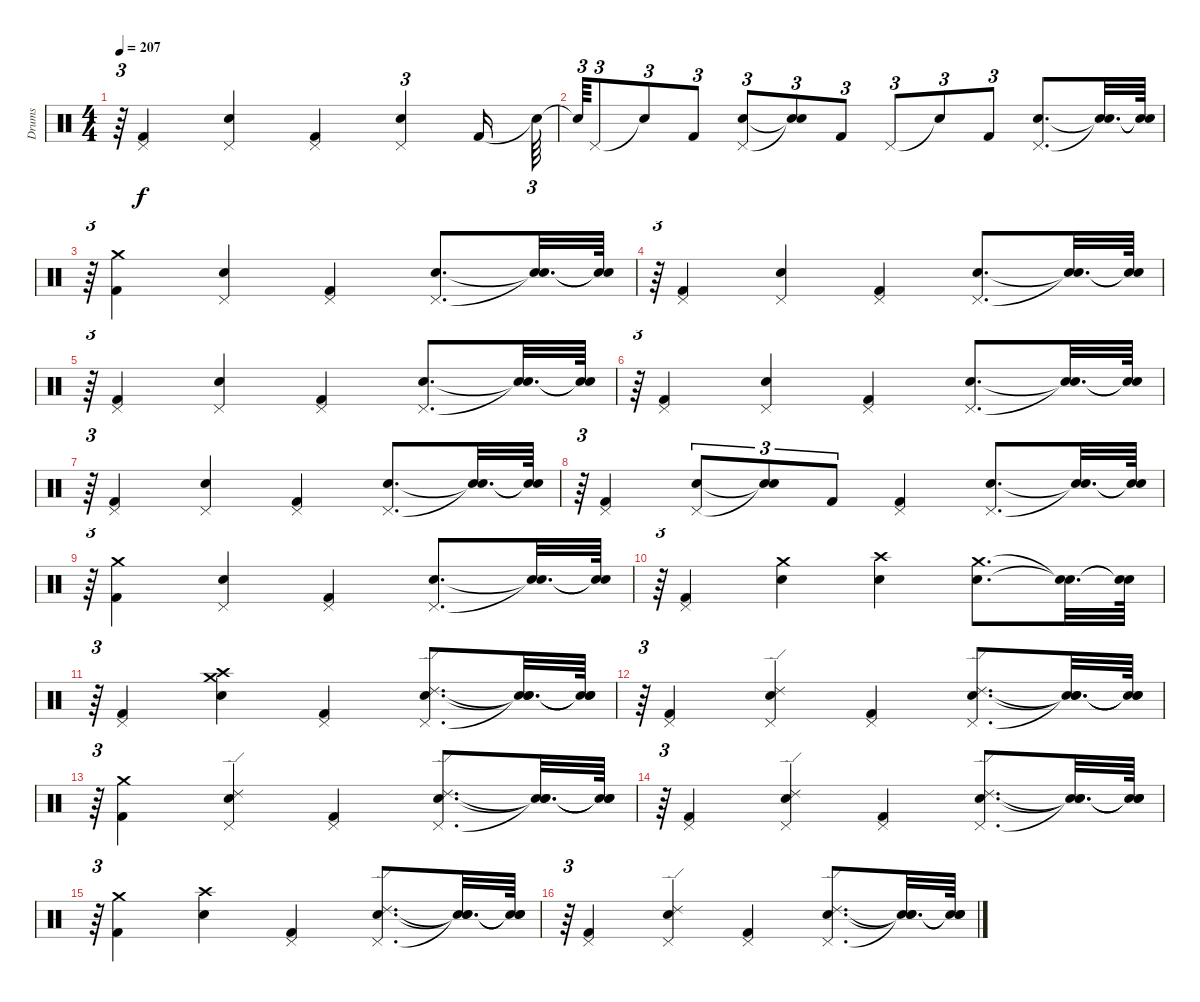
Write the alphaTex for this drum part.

\track ("Drums" "Drums") {instrument percussion}
\staff {score}
\articulation defaults
\ts (4 4)
\tempo 207
\clef neutral
\ks c
r.64{tu (3 2) dy f} ("Pedal Hi-Hat (hit)" "Kick (hit) 2").4 ("Pedal Hi-Hat (hit)" "Snare (hit) 2").4 ("Pedal Hi-Hat (hit)" "Kick (hit) 2").4 ("Pedal Hi-Hat (hit)" "Snare (hit) 2").4{tu (3 2)} "Kick (hit) 2".16 "Snare (hit)"{t}.64{tu (3 2)} |
"Snare (hit)"{t}.64{tu (3 2)} "Pedal Hi-Hat (hit)".8{tu (3 2)} "Snare (hit)"{t}.8{tu (3 2)} "Kick (hit) 2".8{tu (3 2)} ("Pedal Hi-Hat (hit)" "Snare (hit) 2").8{tu (3 2)} ("Snare (hit)"{t} "Snare (hit)"{t}).8{tu (3 2)} "Kick (hit) 2".8{tu (3 2)} "Pedal Hi-Hat (hit)".8{tu (3 2)} "Snare (hit)"{t}.8{tu (3 2)} "Kick (hit) 2".8{tu (3 2)} ("Pedal Hi-Hat (hit)" "Snare (hit) 2").8{d} ("Snare (hit)"{t} "Snare (hit)"{t}).32{d} ("Snare (hit)"{t} "Snare (hit)"{t}).64 |
r.64{tu (3 2)} ("Kick (hit) 2" "Crash medium (hit)").4 ("Pedal Hi-Hat (hit)" "Snare (hit) 2").4 ("Pedal Hi-Hat (hit)" "Kick (hit) 2").4 ("Pedal Hi-Hat (hit)" "Snare (hit) 2").8{d} ("Snare (hit)"{t} "Snare (hit)"{t}).32{d} ("Snare (hit)"{t} "Snare (hit)"{t}).64 |
r.64{tu (3 2)} ("Pedal Hi-Hat (hit)" "Kick (hit) 2").4 ("Pedal Hi-Hat (hit)" "Snare (hit) 2").4 ("Pedal Hi-Hat (hit)" "Kick (hit) 2").4 ("Pedal Hi-Hat (hit)" "Snare (hit) 2").8{d} ("Snare (hit)"{t} "Snare (hit)"{t}).32{d} ("Snare (hit)"{t} "Snare (hit)"{t}).64 |
r.64{tu (3 2)} ("Pedal Hi-Hat (hit)" "Kick (hit) 2").4 ("Pedal Hi-Hat (hit)" "Snare (hit) 2").4 ("Pedal Hi-Hat (hit)" "Kick (hit) 2").4 ("Pedal Hi-Hat (hit)" "Snare (hit) 2").8{d} ("Snare (hit)"{t} "Snare (hit)"{t}).32{d} ("Snare (hit)"{t} "Snare (hit)"{t}).64 |
r.64{tu (3 2)} ("Pedal Hi-Hat (hit)" "Kick (hit) 2").4 ("Pedal Hi-Hat (hit)" "Snare (hit) 2").4 ("Pedal Hi-Hat (hit)" "Kick (hit) 2").4 ("Pedal Hi-Hat (hit)" "Snare (hit) 2").8{d} ("Snare (hit)"{t} "Snare (hit)"{t}).32{d} ("Snare (hit)"{t} "Snare (hit)"{t}).64 |
r.64{tu (3 2)} ("Pedal Hi-Hat (hit)" "Kick (hit) 2").4 ("Pedal Hi-Hat (hit)" "Snare (hit) 2").4 ("Pedal Hi-Hat (hit)" "Kick (hit) 2").4 ("Pedal Hi-Hat (hit)" "Snare (hit) 2").8{d} ("Snare (hit)"{t} "Snare (hit)"{t}).32{d} ("Snare (hit)"{t} "Snare (hit)"{t}).64 |
r.64{tu (3 2)} ("Pedal Hi-Hat (hit)" "Kick (hit) 2").4 ("Pedal Hi-Hat (hit)" "Snare (hit) 2").8{tu (3 2)} ("Snare (hit)"{t} "Snare (hit)"{t}).8{tu (3 2)} "Kick (hit) 2".8{tu (3 2)} ("Pedal Hi-Hat (hit)" "Kick (hit) 2").4 ("Pedal Hi-Hat (hit)" "Snare (hit) 2").8{d} ("Snare (hit)"{t} "Snare (hit)"{t}).32{d} ("Snare (hit)"{t} "Snare (hit)"{t}).64 |
r.64{tu (3 2)} ("Kick (hit) 2" "Crash medium (hit)").4 ("Snare (hit) 2" "Pedal Hi-Hat (hit)").4 ("Pedal Hi-Hat (hit)" "Kick (hit) 2").4 ("Pedal Hi-Hat (hit)" "Snare (hit) 2").8{d} ("Snare (hit)"{t} "Snare (hit)"{t}).32{d} ("Snare (hit)"{t} "Snare (hit)"{t}).64 |
r.64{tu (3 2)} ("Pedal Hi-Hat (hit)" "Kick (hit) 2").4 ("Snare (hit) 2" "Crash medium (hit)").4 ("Snare (hit) 2" "Crash high (hit)").4 ("Snare (hit) 2" "Crash medium (hit)").8{d} ("Snare (hit)"{t} "Snare (hit)"{t}).32{d} ("Snare (hit)"{t} "Snare (hit)"{t}).64 |
r.64{tu (3 2)} ("Pedal Hi-Hat (hit)" "Kick (hit) 2").4 ("Snare (hit) 2" "Crash high (hit)" "Crash medium (hit)").4 ("Pedal Hi-Hat (hit)" "Kick (hit) 2").4 ("Ride (edge) 2" "Pedal Hi-Hat (hit)" "Snare (hit) 2").8{d} ("Snare (hit)"{t} "Snare (hit)"{t} "Snare (hit)"{t}).32{d} ("Snare (hit)"{t} "Snare (hit)"{t} "Snare (hit)"{t}).64 |
r.64{tu (3 2)} ("Pedal Hi-Hat (hit)" "Kick (hit) 2").4 ("Ride (edge) 2" "Pedal Hi-Hat (hit)" "Snare (hit) 2").4 ("Pedal Hi-Hat (hit)" "Kick (hit) 2").4 ("Ride (edge) 2" "Pedal Hi-Hat (hit)" "Snare (hit) 2").8{d} ("Snare (hit)"{t} "Snare (hit)"{t} "Snare (hit)"{t}).32{d} ("Snare (hit)"{t} "Snare (hit)"{t} "Snare (hit)"{t}).64 |
r.64{tu (3 2)} ("Kick (hit) 2" "Crash medium (hit)").4 ("Ride (edge) 2" "Pedal Hi-Hat (hit)" "Snare (hit) 2").4 ("Pedal Hi-Hat (hit)" "Kick (hit) 2").4 ("Ride (edge) 2" "Pedal Hi-Hat (hit)" "Snare (hit) 2").8{d} ("Snare (hit)"{t} "Snare (hit)"{t} "Snare (hit)"{t}).32{d} ("Snare (hit)"{t} "Snare (hit)"{t} "Snare (hit)"{t}).64 |
r.64{tu (3 2)} ("Pedal Hi-Hat (hit)" "Kick (hit) 2").4 ("Ride (edge) 2" "Pedal Hi-Hat (hit)" "Snare (hit) 2").4 ("Pedal Hi-Hat (hit)" "Kick (hit) 2").4 ("Ride (edge) 2" "Pedal Hi-Hat (hit)" "Snare (hit) 2").8{d} ("Snare (hit)"{t} "Snare (hit)"{t} "Snare (hit)"{t}).32{d} ("Snare (hit)"{t} "Snare (hit)"{t} "Snare (hit)"{t}).64 |
r.64{tu (3 2)} ("Kick (hit) 2" "Crash medium (hit)").4 ("Snare (hit) 2" "Crash high (hit)").4 ("Pedal Hi-Hat (hit)" "Kick (hit) 2").4 ("Pedal Hi-Hat (hit)" "Snare (hit) 2" "Ride (edge) 2").8{d} ("Snare (hit)"{t} "Snare (hit)"{t} "Snare (hit)"{t}).32{d} ("Snare (hit)"{t} "Snare (hit)"{t} "Snare (hit)"{t}).64 |
r.64{tu (3 2)} ("Pedal Hi-Hat (hit)" "Kick (hit) 2").4 ("Pedal Hi-Hat (hit)" "Snare (hit) 2" "Ride (edge) 2").4 ("Pedal Hi-Hat (hit)" "Kick (hit) 2").4 ("Pedal Hi-Hat (hit)" "Snare (hit) 2" "Ride (edge) 2").8{d} ("Snare (hit)"{t} "Snare (hit)"{t} "Snare (hit)"{t}).32{d} ("Snare (hit)"{t} "Snare (hit)"{t} "Snare (hit)"{t}).64
